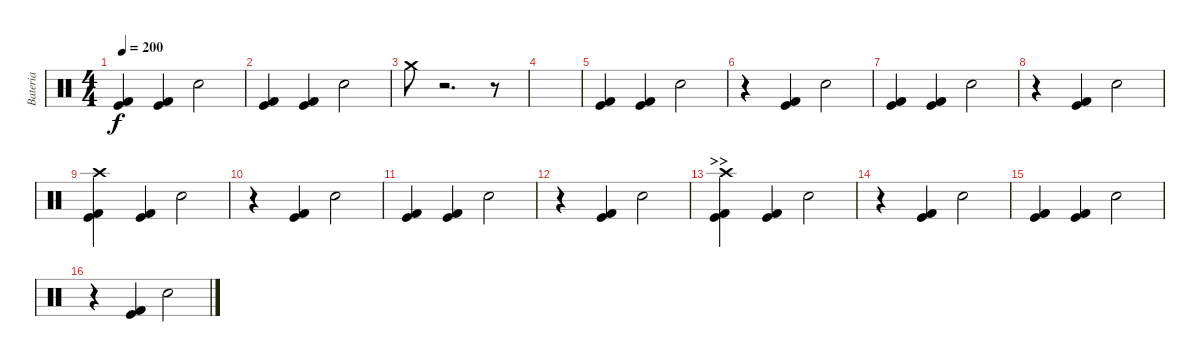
\track ("Bateria" "Bateria") {instrument percussion}
\staff {score}
\articulation defaults
\ts (4 4)
\tempo 200
\clef neutral
\ks c
("Kick (hit)" "Kick (hit) 2").4{dy f} ("Kick (hit)" "Kick (hit) 2").4 "Electric Snare (hit)".2 |
("Kick (hit)" "Kick (hit) 2").4 ("Kick (hit)" "Kick (hit) 2").4 "Electric Snare (hit)".2 |
"Crash medium (hit)".8 r.2{d} r.8 |
|
("Kick (hit) 2" "Kick (hit)").4 ("Kick (hit) 2" "Kick (hit)").4 "Electric Snare (hit)".2 |
r.4 ("Kick (hit) 2" "Kick (hit)").4 "Electric Snare (hit)".2 |
("Kick (hit) 2" "Kick (hit)").4 ("Kick (hit) 2" "Kick (hit)").4 "Electric Snare (hit)".2 |
r.4 ("Kick (hit) 2" "Kick (hit)").4 "Electric Snare (hit)".2 |
("Kick (hit) 2" "Kick (hit)" "Crash high (hit)").4 ("Kick (hit) 2" "Kick (hit)").4 "Electric Snare (hit)".2 |
r.4 ("Kick (hit) 2" "Kick (hit)").4 "Electric Snare (hit)".2 |
("Kick (hit) 2" "Kick (hit)").4 ("Kick (hit) 2" "Kick (hit)").4 "Electric Snare (hit)".2 |
r.4 ("Kick (hit) 2" "Kick (hit)").4 "Electric Snare (hit)".2 |
\section ("" ">>")
("Kick (hit) 2" "Kick (hit)" "Crash high (hit)").4 ("Kick (hit) 2" "Kick (hit)").4 "Electric Snare (hit)".2 |
r.4 ("Kick (hit) 2" "Kick (hit)").4 "Electric Snare (hit)".2 |
("Kick (hit) 2" "Kick (hit)").4 ("Kick (hit) 2" "Kick (hit)").4 "Electric Snare (hit)".2 |
r.4 ("Kick (hit) 2" "Kick (hit)").4 "Electric Snare (hit)".2
